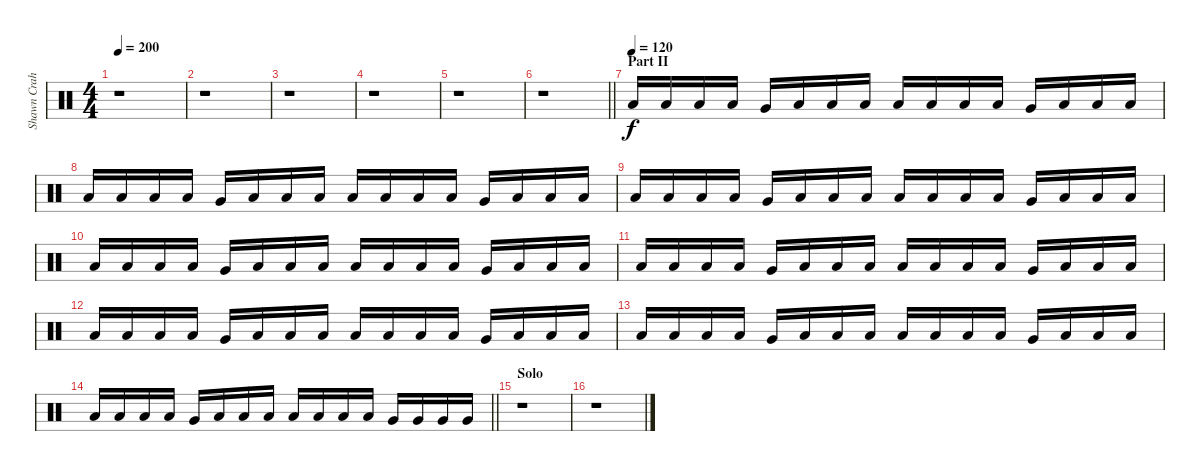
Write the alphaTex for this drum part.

\track ("Shawn Crahan" "Shawn Crah") {instrument percussion}
\staff {score}
\articulation defaults
\ts (4 4)
\tempo 200
\clef neutral
\ks c
r.1{dy f} |
r.1 |
r.1 |
r.1 |
r.1 |
\barLineRight lightlight
r.1 |
\section ("" "Part II")
\tempo (120)
"Low Floor Tom (hit)".16 "Low Floor Tom (hit)".16 "Low Floor Tom (hit)".16 "Low Floor Tom (hit)".16 "Very Low Tom (hit)".16 "Low Floor Tom (hit)".16 "Low Floor Tom (hit)".16 "Low Floor Tom (hit)".16 "Low Floor Tom (hit)".16 "Low Floor Tom (hit)".16 "Low Floor Tom (hit)".16 "Low Floor Tom (hit)".16 "Very Low Tom (hit)".16 "Low Floor Tom (hit)".16 "Low Floor Tom (hit)".16 "Low Floor Tom (hit)".16 |
"Low Floor Tom (hit)".16 "Low Floor Tom (hit)".16 "Low Floor Tom (hit)".16 "Low Floor Tom (hit)".16 "Very Low Tom (hit)".16 "Low Floor Tom (hit)".16 "Low Floor Tom (hit)".16 "Low Floor Tom (hit)".16 "Low Floor Tom (hit)".16 "Low Floor Tom (hit)".16 "Low Floor Tom (hit)".16 "Low Floor Tom (hit)".16 "Very Low Tom (hit)".16 "Low Floor Tom (hit)".16 "Low Floor Tom (hit)".16 "Low Floor Tom (hit)".16 |
"Low Floor Tom (hit)".16 "Low Floor Tom (hit)".16 "Low Floor Tom (hit)".16 "Low Floor Tom (hit)".16 "Very Low Tom (hit)".16 "Low Floor Tom (hit)".16 "Low Floor Tom (hit)".16 "Low Floor Tom (hit)".16 "Low Floor Tom (hit)".16 "Low Floor Tom (hit)".16 "Low Floor Tom (hit)".16 "Low Floor Tom (hit)".16 "Very Low Tom (hit)".16 "Low Floor Tom (hit)".16 "Low Floor Tom (hit)".16 "Low Floor Tom (hit)".16 |
"Low Floor Tom (hit)".16 "Low Floor Tom (hit)".16 "Low Floor Tom (hit)".16 "Low Floor Tom (hit)".16 "Very Low Tom (hit)".16 "Low Floor Tom (hit)".16 "Low Floor Tom (hit)".16 "Low Floor Tom (hit)".16 "Low Floor Tom (hit)".16 "Low Floor Tom (hit)".16 "Low Floor Tom (hit)".16 "Low Floor Tom (hit)".16 "Very Low Tom (hit)".16 "Low Floor Tom (hit)".16 "Low Floor Tom (hit)".16 "Low Floor Tom (hit)".16 |
"Low Floor Tom (hit)".16 "Low Floor Tom (hit)".16 "Low Floor Tom (hit)".16 "Low Floor Tom (hit)".16 "Very Low Tom (hit)".16 "Low Floor Tom (hit)".16 "Low Floor Tom (hit)".16 "Low Floor Tom (hit)".16 "Low Floor Tom (hit)".16 "Low Floor Tom (hit)".16 "Low Floor Tom (hit)".16 "Low Floor Tom (hit)".16 "Very Low Tom (hit)".16 "Low Floor Tom (hit)".16 "Low Floor Tom (hit)".16 "Low Floor Tom (hit)".16 |
"Low Floor Tom (hit)".16 "Low Floor Tom (hit)".16 "Low Floor Tom (hit)".16 "Low Floor Tom (hit)".16 "Very Low Tom (hit)".16 "Low Floor Tom (hit)".16 "Low Floor Tom (hit)".16 "Low Floor Tom (hit)".16 "Low Floor Tom (hit)".16 "Low Floor Tom (hit)".16 "Low Floor Tom (hit)".16 "Low Floor Tom (hit)".16 "Very Low Tom (hit)".16 "Low Floor Tom (hit)".16 "Low Floor Tom (hit)".16 "Low Floor Tom (hit)".16 |
"Low Floor Tom (hit)".16 "Low Floor Tom (hit)".16 "Low Floor Tom (hit)".16 "Low Floor Tom (hit)".16 "Very Low Tom (hit)".16 "Low Floor Tom (hit)".16 "Low Floor Tom (hit)".16 "Low Floor Tom (hit)".16 "Low Floor Tom (hit)".16 "Low Floor Tom (hit)".16 "Low Floor Tom (hit)".16 "Low Floor Tom (hit)".16 "Very Low Tom (hit)".16 "Low Floor Tom (hit)".16 "Low Floor Tom (hit)".16 "Low Floor Tom (hit)".16 |
\barLineRight lightlight "Low Floor Tom (hit)".16 "Low Floor Tom (hit)".16 "Low Floor Tom (hit)".16 "Low Floor Tom (hit)".16 "Very Low Tom (hit)".16 "Low Floor Tom (hit)".16 "Low Floor Tom (hit)".16 "Low Floor Tom (hit)".16 "Low Floor Tom (hit)".16 "Low Floor Tom (hit)".16 "Low Floor Tom (hit)".16 "Low Floor Tom (hit)".16 "Very Low Tom (hit)".16 "Very Low Tom (hit)".16 "Very Low Tom (hit)".16 "Very Low Tom (hit)".16
|
\section ("" "Solo")
r.1 |
r.1
